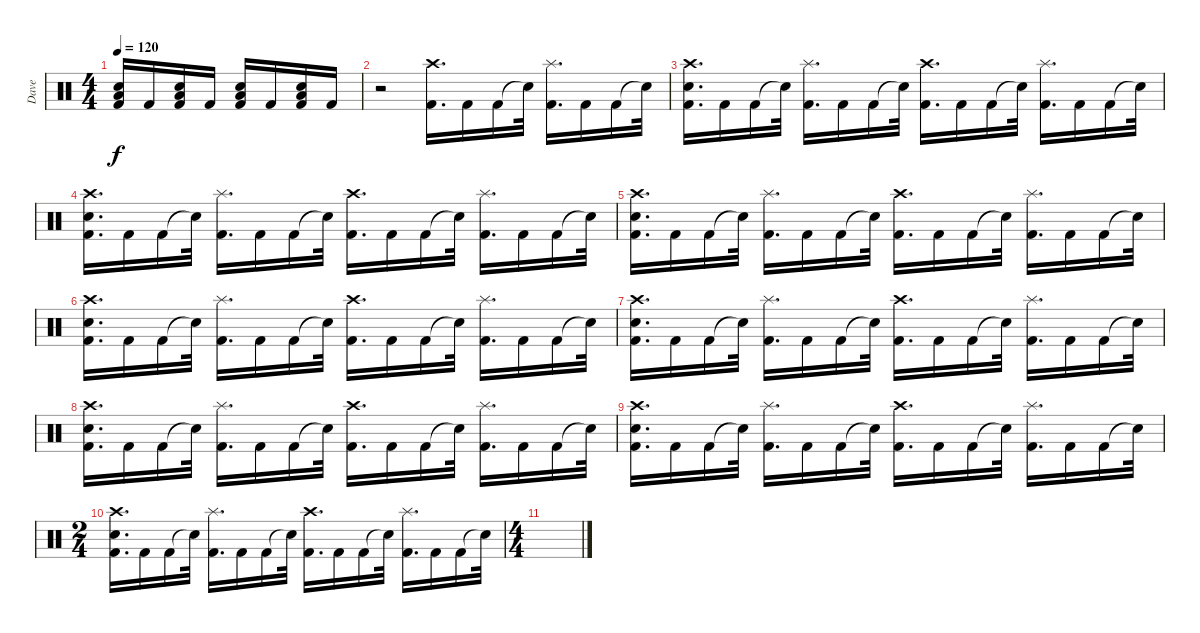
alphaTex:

\track ("Dave" "Dave") {instrument percussion}
\staff {score}
\articulation defaults
\ts (4 4)
\tempo 120
\clef neutral
\ks c
("Kick (hit) 2" "Snare (hit) 2" "Low Floor Tom (hit)").16{dy f} "Kick (hit) 2".16 ("Kick (hit) 2" "Snare (hit) 2" "Low Floor Tom (hit)").16 "Kick (hit) 2".16 ("Kick (hit) 2" "Snare (hit) 2" "Low Floor Tom (hit)").16 "Kick (hit) 2".16 ("Kick (hit) 2" "Snare (hit) 2" "Low Floor Tom (hit)").16 "Kick (hit) 2".16 |
r.2 ("Kick (hit) 2" "Crash high (hit)").16{d} "Kick (hit) 2".16 "Kick (hit) 2".16 "Snare (hit)"{t}.32 ("Kick (hit) 2" "Splash (hit)").16{d} "Kick (hit) 2".16 "Kick (hit) 2".16 "Snare (hit)"{t}.32 |
("Kick (hit) 2" "Snare (hit) 2" "Crash high (hit)").16{d} "Kick (hit) 2".16 "Kick (hit) 2".16 "Snare (hit)"{t}.32 ("Kick (hit) 2" "Splash (hit)").16{d} "Kick (hit) 2".16 "Kick (hit) 2".16 "Snare (hit)"{t}.32 ("Kick (hit) 2" "Crash high (hit)").16{d} "Kick (hit) 2".16 "Kick (hit) 2".16 "Snare (hit)"{t}.32 ("Kick (hit) 2" "Splash (hit)").16{d} "Kick (hit) 2".16 "Kick (hit) 2".16 "Snare (hit)"{t}.32 |
("Kick (hit) 2" "Snare (hit) 2" "Crash high (hit)").16{d} "Kick (hit) 2".16 "Kick (hit) 2".16 "Snare (hit)"{t}.32 ("Kick (hit) 2" "Splash (hit)").16{d} "Kick (hit) 2".16 "Kick (hit) 2".16 "Snare (hit)"{t}.32 ("Kick (hit) 2" "Crash high (hit)").16{d} "Kick (hit) 2".16 "Kick (hit) 2".16 "Snare (hit)"{t}.32 ("Kick (hit) 2" "Splash (hit)").16{d} "Kick (hit) 2".16 "Kick (hit) 2".16 "Snare (hit)"{t}.32 |
("Kick (hit) 2" "Snare (hit) 2" "Crash high (hit)").16{d} "Kick (hit) 2".16 "Kick (hit) 2".16 "Snare (hit)"{t}.32 ("Kick (hit) 2" "Splash (hit)").16{d} "Kick (hit) 2".16 "Kick (hit) 2".16 "Snare (hit)"{t}.32 ("Kick (hit) 2" "Crash high (hit)").16{d} "Kick (hit) 2".16 "Kick (hit) 2".16 "Snare (hit)"{t}.32 ("Kick (hit) 2" "Splash (hit)").16{d} "Kick (hit) 2".16 "Kick (hit) 2".16 "Snare (hit)"{t}.32 |
("Kick (hit) 2" "Snare (hit) 2" "Crash high (hit)").16{d} "Kick (hit) 2".16 "Kick (hit) 2".16 "Snare (hit)"{t}.32 ("Kick (hit) 2" "Splash (hit)").16{d} "Kick (hit) 2".16 "Kick (hit) 2".16 "Snare (hit)"{t}.32 ("Kick (hit) 2" "Crash high (hit)").16{d} "Kick (hit) 2".16 "Kick (hit) 2".16 "Snare (hit)"{t}.32 ("Kick (hit) 2" "Splash (hit)").16{d} "Kick (hit) 2".16 "Kick (hit) 2".16 "Snare (hit)"{t}.32 |
("Kick (hit) 2" "Snare (hit) 2" "Crash high (hit)").16{d} "Kick (hit) 2".16 "Kick (hit) 2".16 "Snare (hit)"{t}.32 ("Kick (hit) 2" "Splash (hit)").16{d} "Kick (hit) 2".16 "Kick (hit) 2".16 "Snare (hit)"{t}.32 ("Kick (hit) 2" "Crash high (hit)").16{d} "Kick (hit) 2".16 "Kick (hit) 2".16 "Snare (hit)"{t}.32 ("Kick (hit) 2" "Splash (hit)").16{d} "Kick (hit) 2".16 "Kick (hit) 2".16 "Snare (hit)"{t}.32 |
("Kick (hit) 2" "Snare (hit) 2" "Crash high (hit)").16{d} "Kick (hit) 2".16 "Kick (hit) 2".16 "Snare (hit)"{t}.32 ("Kick (hit) 2" "Splash (hit)").16{d} "Kick (hit) 2".16 "Kick (hit) 2".16 "Snare (hit)"{t}.32 ("Kick (hit) 2" "Crash high (hit)").16{d} "Kick (hit) 2".16 "Kick (hit) 2".16 "Snare (hit)"{t}.32 ("Kick (hit) 2" "Splash (hit)").16{d} "Kick (hit) 2".16 "Kick (hit) 2".16 "Snare (hit)"{t}.32 |
("Kick (hit) 2" "Snare (hit) 2" "Crash high (hit)").16{d} "Kick (hit) 2".16 "Kick (hit) 2".16 "Snare (hit)"{t}.32 ("Kick (hit) 2" "Splash (hit)").16{d} "Kick (hit) 2".16 "Kick (hit) 2".16 "Snare (hit)"{t}.32 ("Kick (hit) 2" "Crash high (hit)").16{d} "Kick (hit) 2".16 "Kick (hit) 2".16 "Snare (hit)"{t}.32 ("Kick (hit) 2" "Splash (hit)").16{d} "Kick (hit) 2".16 "Kick (hit) 2".16 "Snare (hit)"{t}.32 |
\ts (2 4)
("Kick (hit) 2" "Snare (hit) 2" "Crash high (hit)").16{d} "Kick (hit) 2".16 "Kick (hit) 2".16 "Snare (hit)"{t}.32 ("Kick (hit) 2" "Splash (hit)").16{d} "Kick (hit) 2".16 "Kick (hit) 2".16 "Snare (hit)"{t}.32 ("Kick (hit) 2" "Crash high (hit)").16{d} "Kick (hit) 2".16 "Kick (hit) 2".16 "Snare (hit)"{t}.32 ("Kick (hit) 2" "Splash (hit)").16{d} "Kick (hit) 2".16 "Kick (hit) 2".16 "Snare (hit)"{t}.32 |
\ts (4 4)
